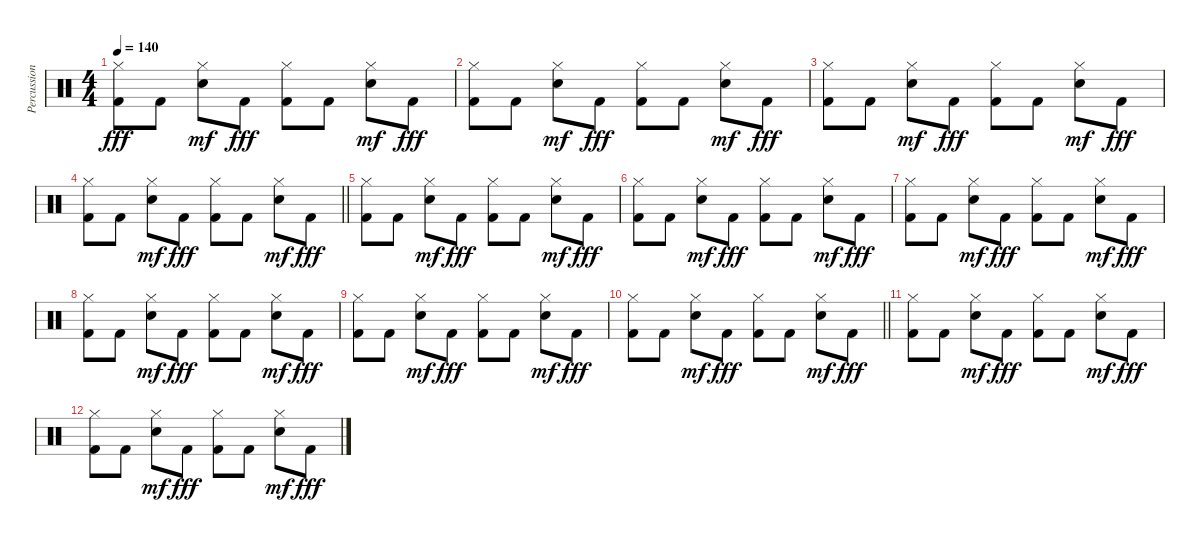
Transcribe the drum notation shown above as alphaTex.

\track ("Percussioni" "Percussion") {instrument percussion}
\staff {score}
\articulation defaults
\ts (4 4)
\tempo 140
\clef neutral
\ks c
("Hi-Hat (closed)" "Kick (hit) 2").8{dy fff} "Kick (hit) 2".8 ("Hi-Hat (closed)" "Snare (hit) 2").8{dy mf} "Kick (hit) 2".8{dy fff} ("Hi-Hat (closed)" "Kick (hit) 2").8 "Kick (hit) 2".8 ("Hi-Hat (closed)" "Snare (hit) 2").8{dy mf} "Kick (hit) 2".8{dy fff} |
("Hi-Hat (closed)" "Kick (hit) 2").8 "Kick (hit) 2".8 ("Hi-Hat (closed)" "Snare (hit) 2").8{dy mf} "Kick (hit) 2".8{dy fff} ("Hi-Hat (closed)" "Kick (hit) 2").8 "Kick (hit) 2".8 ("Hi-Hat (closed)" "Snare (hit) 2").8{dy mf} "Kick (hit) 2".8{dy fff} |
("Hi-Hat (closed)" "Kick (hit) 2").8 "Kick (hit) 2".8 ("Hi-Hat (closed)" "Snare (hit) 2").8{dy mf} "Kick (hit) 2".8{dy fff} ("Hi-Hat (closed)" "Kick (hit) 2").8 "Kick (hit) 2".8 ("Hi-Hat (closed)" "Snare (hit) 2").8{dy mf} "Kick (hit) 2".8{dy fff} |
\barLineRight lightlight
("Hi-Hat (closed)" "Kick (hit) 2").8 "Kick (hit) 2".8 ("Hi-Hat (closed)" "Snare (hit) 2").8{dy mf} "Kick (hit) 2".8{dy fff} ("Hi-Hat (closed)" "Kick (hit) 2").8 "Kick (hit) 2".8 ("Hi-Hat (closed)" "Snare (hit) 2").8{dy mf} "Kick (hit) 2".8{dy fff} |
("Hi-Hat (closed)" "Kick (hit) 2").8 "Kick (hit) 2".8 ("Hi-Hat (closed)" "Snare (hit) 2").8{dy mf} "Kick (hit) 2".8{dy fff} ("Hi-Hat (closed)" "Kick (hit) 2").8 "Kick (hit) 2".8 ("Hi-Hat (closed)" "Snare (hit) 2").8{dy mf} "Kick (hit) 2".8{dy fff} |
("Hi-Hat (closed)" "Kick (hit) 2").8 "Kick (hit) 2".8 ("Hi-Hat (closed)" "Snare (hit) 2").8{dy mf} "Kick (hit) 2".8{dy fff} ("Hi-Hat (closed)" "Kick (hit) 2").8 "Kick (hit) 2".8 ("Hi-Hat (closed)" "Snare (hit) 2").8{dy mf} "Kick (hit) 2".8{dy fff} |
("Hi-Hat (closed)" "Kick (hit) 2").8 "Kick (hit) 2".8 ("Hi-Hat (closed)" "Snare (hit) 2").8{dy mf} "Kick (hit) 2".8{dy fff} ("Hi-Hat (closed)" "Kick (hit) 2").8 "Kick (hit) 2".8 ("Hi-Hat (closed)" "Snare (hit) 2").8{dy mf} "Kick (hit) 2".8{dy fff} |
("Hi-Hat (closed)" "Kick (hit) 2").8 "Kick (hit) 2".8 ("Hi-Hat (closed)" "Snare (hit) 2").8{dy mf} "Kick (hit) 2".8{dy fff} ("Hi-Hat (closed)" "Kick (hit) 2").8 "Kick (hit) 2".8 ("Hi-Hat (closed)" "Snare (hit) 2").8{dy mf} "Kick (hit) 2".8{dy fff} |
("Hi-Hat (closed)" "Kick (hit) 2").8 "Kick (hit) 2".8 ("Hi-Hat (closed)" "Snare (hit) 2").8{dy mf} "Kick (hit) 2".8{dy fff} ("Hi-Hat (closed)" "Kick (hit) 2").8 "Kick (hit) 2".8 ("Hi-Hat (closed)" "Snare (hit) 2").8{dy mf} "Kick (hit) 2".8{dy fff} |
\barLineRight lightlight
("Hi-Hat (closed)" "Kick (hit) 2").8 "Kick (hit) 2".8 ("Hi-Hat (closed)" "Snare (hit) 2").8{dy mf} "Kick (hit) 2".8{dy fff} ("Hi-Hat (closed)" "Kick (hit) 2").8 "Kick (hit) 2".8 ("Hi-Hat (closed)" "Snare (hit) 2").8{dy mf} "Kick (hit) 2".8{dy fff} |
("Hi-Hat (closed)" "Kick (hit) 2").8 "Kick (hit) 2".8 ("Hi-Hat (closed)" "Snare (hit) 2").8{dy mf} "Kick (hit) 2".8{dy fff} ("Hi-Hat (closed)" "Kick (hit) 2").8 "Kick (hit) 2".8 ("Hi-Hat (closed)" "Snare (hit) 2").8{dy mf} "Kick (hit) 2".8{dy fff} |
("Hi-Hat (closed)" "Kick (hit) 2").8 "Kick (hit) 2".8 ("Hi-Hat (closed)" "Snare (hit) 2").8{dy mf} "Kick (hit) 2".8{dy fff} ("Hi-Hat (closed)" "Kick (hit) 2").8 "Kick (hit) 2".8 ("Hi-Hat (closed)" "Snare (hit) 2").8{dy mf} "Kick (hit) 2".8{dy fff}
